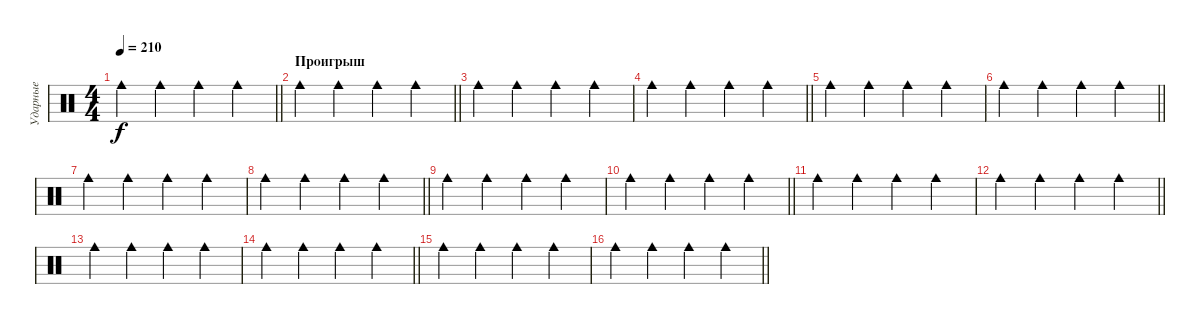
\track ("Ударные" "Ударные") {mute instrument percussion}
\staff {score}
\articulation defaults
\ts (4 4)
\tempo 210
\clef neutral
\barLineRight lightlight
\ks c "Cowbell medium (hit)".4{dy f} "Cowbell medium (hit)".4 "Cowbell medium (hit)".4 "Cowbell medium (hit)".4
|
\section ("" "Проигрыш")
\barLineRight lightlight "Cowbell medium (hit)".4 "Cowbell medium (hit)".4 "Cowbell medium (hit)".4 "Cowbell medium (hit)".4
|
"Cowbell medium (hit)".4 "Cowbell medium (hit)".4 "Cowbell medium (hit)".4 "Cowbell medium (hit)".4 |
\barLineRight lightlight "Cowbell medium (hit)".4 "Cowbell medium (hit)".4 "Cowbell medium (hit)".4 "Cowbell medium (hit)".4
|
"Cowbell medium (hit)".4 "Cowbell medium (hit)".4 "Cowbell medium (hit)".4 "Cowbell medium (hit)".4 |
\barLineRight lightlight "Cowbell medium (hit)".4 "Cowbell medium (hit)".4 "Cowbell medium (hit)".4 "Cowbell medium (hit)".4
|
"Cowbell medium (hit)".4 "Cowbell medium (hit)".4 "Cowbell medium (hit)".4 "Cowbell medium (hit)".4 |
\barLineRight lightlight "Cowbell medium (hit)".4 "Cowbell medium (hit)".4 "Cowbell medium (hit)".4 "Cowbell medium (hit)".4
|
"Cowbell medium (hit)".4 "Cowbell medium (hit)".4 "Cowbell medium (hit)".4 "Cowbell medium (hit)".4 |
\barLineRight lightlight "Cowbell medium (hit)".4 "Cowbell medium (hit)".4 "Cowbell medium (hit)".4 "Cowbell medium (hit)".4
|
"Cowbell medium (hit)".4 "Cowbell medium (hit)".4 "Cowbell medium (hit)".4 "Cowbell medium (hit)".4 |
\barLineRight lightlight "Cowbell medium (hit)".4 "Cowbell medium (hit)".4 "Cowbell medium (hit)".4 "Cowbell medium (hit)".4
|
"Cowbell medium (hit)".4 "Cowbell medium (hit)".4 "Cowbell medium (hit)".4 "Cowbell medium (hit)".4 |
\barLineRight lightlight "Cowbell medium (hit)".4 "Cowbell medium (hit)".4 "Cowbell medium (hit)".4 "Cowbell medium (hit)".4
|
"Cowbell medium (hit)".4 "Cowbell medium (hit)".4 "Cowbell medium (hit)".4 "Cowbell medium (hit)".4 |
\barLineRight lightlight "Cowbell medium (hit)".4 "Cowbell medium (hit)".4 "Cowbell medium (hit)".4 "Cowbell medium (hit)".4
